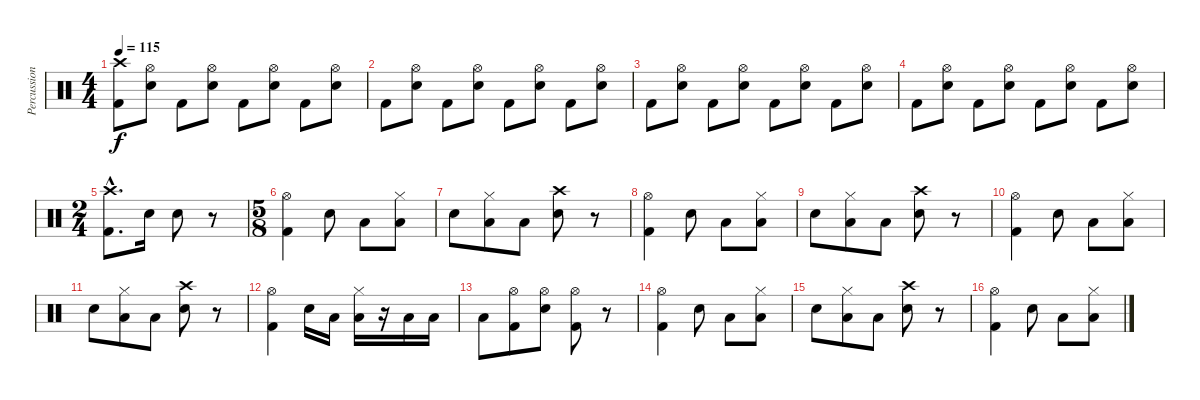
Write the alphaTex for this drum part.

\track ("Percussion" "Percussion") {instrument percussion}
\staff {score}
\articulation defaults
\ts (4 4)
\tempo 115
\clef neutral
\ks c
("Crash high (hit)" "Kick (hit) 2").8{dy f} ("Hi-Hat (open)" "Electric Snare (hit)").8 "Kick (hit) 2".8 ("Hi-Hat (open)" "Electric Snare (hit)").8 "Kick (hit) 2".8 ("Hi-Hat (open)" "Electric Snare (hit)").8 "Kick (hit) 2".8 ("Hi-Hat (open)" "Electric Snare (hit)").8 |
"Kick (hit) 2".8 ("Hi-Hat (open)" "Electric Snare (hit)").8 "Kick (hit) 2".8 ("Hi-Hat (open)" "Electric Snare (hit)").8 "Kick (hit) 2".8 ("Hi-Hat (open)" "Electric Snare (hit)").8 "Kick (hit) 2".8 ("Hi-Hat (open)" "Electric Snare (hit)").8 |
"Kick (hit) 2".8 ("Hi-Hat (open)" "Electric Snare (hit)").8 "Kick (hit) 2".8 ("Hi-Hat (open)" "Electric Snare (hit)").8 "Kick (hit) 2".8 ("Hi-Hat (open)" "Electric Snare (hit)").8 "Kick (hit) 2".8 ("Hi-Hat (open)" "Electric Snare (hit)").8 |
"Kick (hit) 2".8 ("Hi-Hat (open)" "Electric Snare (hit)").8 "Kick (hit) 2".8 ("Hi-Hat (open)" "Electric Snare (hit)").8 "Kick (hit) 2".8 ("Hi-Hat (open)" "Electric Snare (hit)").8 "Kick (hit) 2".8 ("Hi-Hat (open)" "Electric Snare (hit)").8 |
\ts (2 4)
("Crash high (hit)"{hac} "Kick (hit) 2"{hac}).8{d} "Electric Snare (hit)".16 "Electric Snare (hit)".8 r.8 |
\ts (5 8)
("Hi-Hat (open)" "Kick (hit) 2").4 "Electric Snare (hit)".8 "Low Tom (hit)".8 ("Hi-Hat (closed)" "Low Tom (hit)").8 |
"Electric Snare (hit)".8 ("Hi-Hat (closed)" "Low Tom (hit)").8 "Low Tom (hit)".8 ("Crash high (hit)" "Electric Snare (hit)").8 r.8 |
("Hi-Hat (open)" "Kick (hit) 2").4 "Electric Snare (hit)".8 "Low Tom (hit)".8 ("Hi-Hat (closed)" "Low Tom (hit)").8 |
"Electric Snare (hit)".8 ("Hi-Hat (closed)" "Low Tom (hit)").8 "Low Tom (hit)".8 ("Crash high (hit)" "Electric Snare (hit)").8 r.8 |
("Hi-Hat (open)" "Kick (hit) 2").4 "Electric Snare (hit)".8 "Low Tom (hit)".8 ("Hi-Hat (closed)" "Low Tom (hit)").8 |
"Electric Snare (hit)".8 ("Hi-Hat (closed)" "Low Tom (hit)").8 "Low Tom (hit)".8 ("Crash high (hit)" "Electric Snare (hit)").8 r.8 |
("Hi-Hat (open)" "Kick (hit) 2").4 "Electric Snare (hit)".16 "Low Tom (hit)".16 ("Hi-Hat (closed)" "Low Tom (hit)").16 r.16 "Low Tom (hit)".16 "Low Tom (hit)".16 |
"Low Tom (hit)".8 ("Hi-Hat (open)" "Kick (hit) 2").8 ("Hi-Hat (open)" "Electric Snare (hit)").8 ("Hi-Hat (open)" "Kick (hit) 2").8 r.8 |
("Hi-Hat (open)" "Kick (hit) 2").4 "Electric Snare (hit)".8 "Low Tom (hit)".8 ("Hi-Hat (closed)" "Low Tom (hit)").8 |
"Electric Snare (hit)".8 ("Hi-Hat (closed)" "Low Tom (hit)").8 "Low Tom (hit)".8 ("Crash high (hit)" "Electric Snare (hit)").8 r.8 |
("Hi-Hat (open)" "Kick (hit) 2").4 "Electric Snare (hit)".8 "Low Tom (hit)".8 ("Hi-Hat (closed)" "Low Tom (hit)").8
